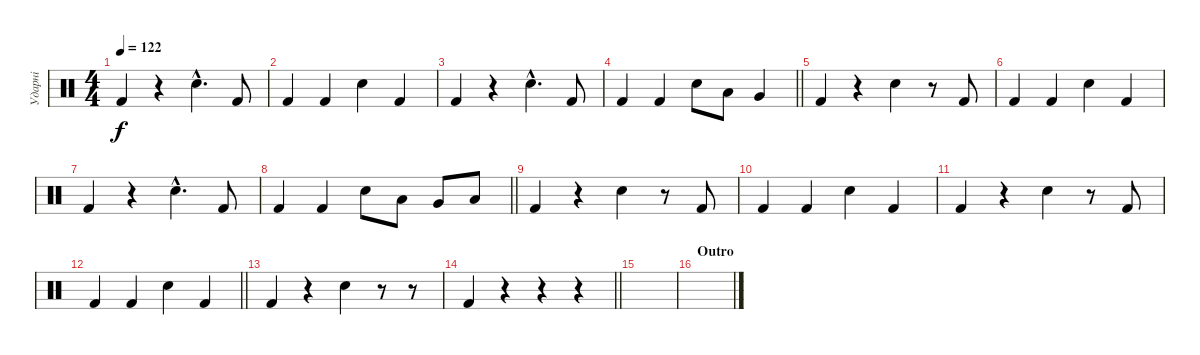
\track ("Ударні" "Ударні") {instrument percussion}
\staff {score}
\articulation defaults
\ts (4 4)
\tempo 122
\clef neutral
\ks c "Kick (hit) 2".4{dy f}
r.4 "Snare (hit) 2"{hac}.4{d} "Kick (hit) 2".8 |
"Kick (hit) 2".4 "Kick (hit) 2".4 "Snare (hit) 2".4 "Kick (hit) 2".4 |
"Kick (hit) 2".4 r.4 "Snare (hit) 2"{hac}.4{d} "Kick (hit) 2".8 |
\barLineRight lightlight "Kick (hit) 2".4 "Kick (hit) 2".4 "Snare (hit) 2".8 "Low Tom (hit)".8 "Very Low Tom (hit)".4
|
"Kick (hit) 2".4 r.4 "Snare (hit) 2".4 r.8 "Kick (hit) 2".8 |
"Kick (hit) 2".4 "Kick (hit) 2".4 "Snare (hit) 2".4 "Kick (hit) 2".4 |
"Kick (hit) 2".4 r.4 "Snare (hit) 2"{hac}.4{d} "Kick (hit) 2".8 |
\barLineRight lightlight "Kick (hit) 2".4 "Kick (hit) 2".4 "Snare (hit) 2".8 "Low Tom (hit)".8 "Very Low Tom (hit)".8 "Low Floor Tom (hit)".8
|
"Kick (hit) 2".4 r.4 "Snare (hit) 2".4 r.8 "Kick (hit) 2".8 |
"Kick (hit) 2".4 "Kick (hit) 2".4 "Snare (hit) 2".4 "Kick (hit) 2".4 |
"Kick (hit) 2".4 r.4 "Snare (hit) 2".4 r.8 "Kick (hit) 2".8 |
\barLineRight lightlight "Kick (hit) 2".4 "Kick (hit) 2".4 "Snare (hit) 2".4 "Kick (hit) 2".4
|
"Kick (hit) 2".4 r.4 "Snare (hit) 2".4 r.8 r.8 |
\barLineRight lightlight "Kick (hit) 2".4
r.4 r.4 r.4 |
|
\section ("" "Outro")
